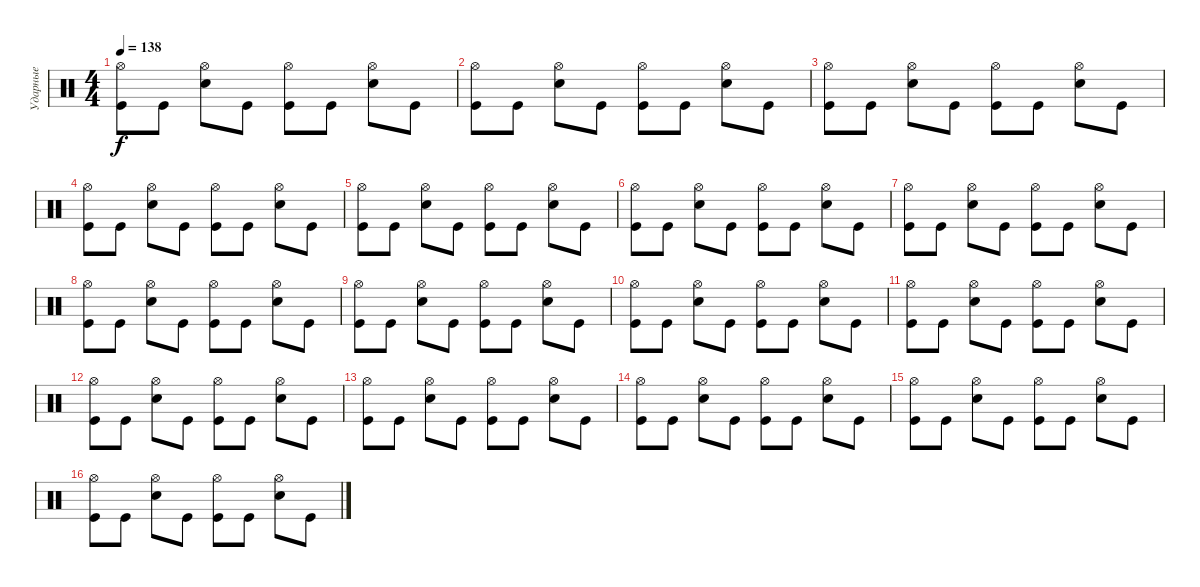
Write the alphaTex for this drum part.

\track ("Ударные" "Ударные") {instrument percussion}
\staff {score}
\articulation defaults
\ts (4 4)
\tempo 138
\clef neutral
\ks c
("Hi-Hat (open)" "Kick (hit)").8{dy f} "Kick (hit)".8 ("Hi-Hat (open)" "Snare (hit) 2").8 "Kick (hit)".8 ("Hi-Hat (open)" "Kick (hit)").8 "Kick (hit)".8 ("Hi-Hat (open)" "Snare (hit) 2").8 "Kick (hit)".8 |
("Hi-Hat (open)" "Kick (hit)").8 "Kick (hit)".8 ("Hi-Hat (open)" "Snare (hit) 2").8 "Kick (hit)".8 ("Hi-Hat (open)" "Kick (hit)").8 "Kick (hit)".8 ("Hi-Hat (open)" "Snare (hit) 2").8 "Kick (hit)".8 |
("Hi-Hat (open)" "Kick (hit)").8 "Kick (hit)".8 ("Hi-Hat (open)" "Snare (hit) 2").8 "Kick (hit)".8 ("Hi-Hat (open)" "Kick (hit)").8 "Kick (hit)".8 ("Hi-Hat (open)" "Snare (hit) 2").8 "Kick (hit)".8 |
("Hi-Hat (open)" "Kick (hit)").8 "Kick (hit)".8 ("Hi-Hat (open)" "Snare (hit) 2").8 "Kick (hit)".8 ("Hi-Hat (open)" "Kick (hit)").8 "Kick (hit)".8 ("Hi-Hat (open)" "Snare (hit) 2").8 "Kick (hit)".8 |
("Hi-Hat (open)" "Kick (hit)").8 "Kick (hit)".8 ("Hi-Hat (open)" "Snare (hit) 2").8 "Kick (hit)".8 ("Hi-Hat (open)" "Kick (hit)").8 "Kick (hit)".8 ("Hi-Hat (open)" "Snare (hit) 2").8 "Kick (hit)".8 |
("Hi-Hat (open)" "Kick (hit)").8 "Kick (hit)".8 ("Hi-Hat (open)" "Snare (hit) 2").8 "Kick (hit)".8 ("Hi-Hat (open)" "Kick (hit)").8 "Kick (hit)".8 ("Hi-Hat (open)" "Snare (hit) 2").8 "Kick (hit)".8 |
("Hi-Hat (open)" "Kick (hit)").8 "Kick (hit)".8 ("Hi-Hat (open)" "Snare (hit) 2").8 "Kick (hit)".8 ("Hi-Hat (open)" "Kick (hit)").8 "Kick (hit)".8 ("Hi-Hat (open)" "Snare (hit) 2").8 "Kick (hit)".8 |
("Hi-Hat (open)" "Kick (hit)").8 "Kick (hit)".8 ("Hi-Hat (open)" "Snare (hit) 2").8 "Kick (hit)".8 ("Hi-Hat (open)" "Kick (hit)").8 "Kick (hit)".8 ("Hi-Hat (open)" "Snare (hit) 2").8 "Kick (hit)".8 |
("Hi-Hat (open)" "Kick (hit)").8 "Kick (hit)".8 ("Hi-Hat (open)" "Snare (hit) 2").8 "Kick (hit)".8 ("Hi-Hat (open)" "Kick (hit)").8 "Kick (hit)".8 ("Hi-Hat (open)" "Snare (hit) 2").8 "Kick (hit)".8 |
("Hi-Hat (open)" "Kick (hit)").8 "Kick (hit)".8 ("Hi-Hat (open)" "Snare (hit) 2").8 "Kick (hit)".8 ("Hi-Hat (open)" "Kick (hit)").8 "Kick (hit)".8 ("Hi-Hat (open)" "Snare (hit) 2").8 "Kick (hit)".8 |
("Hi-Hat (open)" "Kick (hit)").8 "Kick (hit)".8 ("Hi-Hat (open)" "Snare (hit) 2").8 "Kick (hit)".8 ("Hi-Hat (open)" "Kick (hit)").8 "Kick (hit)".8 ("Hi-Hat (open)" "Snare (hit) 2").8 "Kick (hit)".8 |
("Hi-Hat (open)" "Kick (hit)").8 "Kick (hit)".8 ("Hi-Hat (open)" "Snare (hit) 2").8 "Kick (hit)".8 ("Hi-Hat (open)" "Kick (hit)").8 "Kick (hit)".8 ("Hi-Hat (open)" "Snare (hit) 2").8 "Kick (hit)".8 |
("Hi-Hat (open)" "Kick (hit)").8 "Kick (hit)".8 ("Hi-Hat (open)" "Snare (hit) 2").8 "Kick (hit)".8 ("Hi-Hat (open)" "Kick (hit)").8 "Kick (hit)".8 ("Hi-Hat (open)" "Snare (hit) 2").8 "Kick (hit)".8 |
("Hi-Hat (open)" "Kick (hit)").8 "Kick (hit)".8 ("Hi-Hat (open)" "Snare (hit) 2").8 "Kick (hit)".8 ("Hi-Hat (open)" "Kick (hit)").8 "Kick (hit)".8 ("Hi-Hat (open)" "Snare (hit) 2").8 "Kick (hit)".8 |
("Hi-Hat (open)" "Kick (hit)").8 "Kick (hit)".8 ("Hi-Hat (open)" "Snare (hit) 2").8 "Kick (hit)".8 ("Hi-Hat (open)" "Kick (hit)").8 "Kick (hit)".8 ("Hi-Hat (open)" "Snare (hit) 2").8 "Kick (hit)".8 |
("Hi-Hat (open)" "Kick (hit)").8 "Kick (hit)".8 ("Hi-Hat (open)" "Snare (hit) 2").8 "Kick (hit)".8 ("Hi-Hat (open)" "Kick (hit)").8 "Kick (hit)".8 ("Hi-Hat (open)" "Snare (hit) 2").8 "Kick (hit)".8
